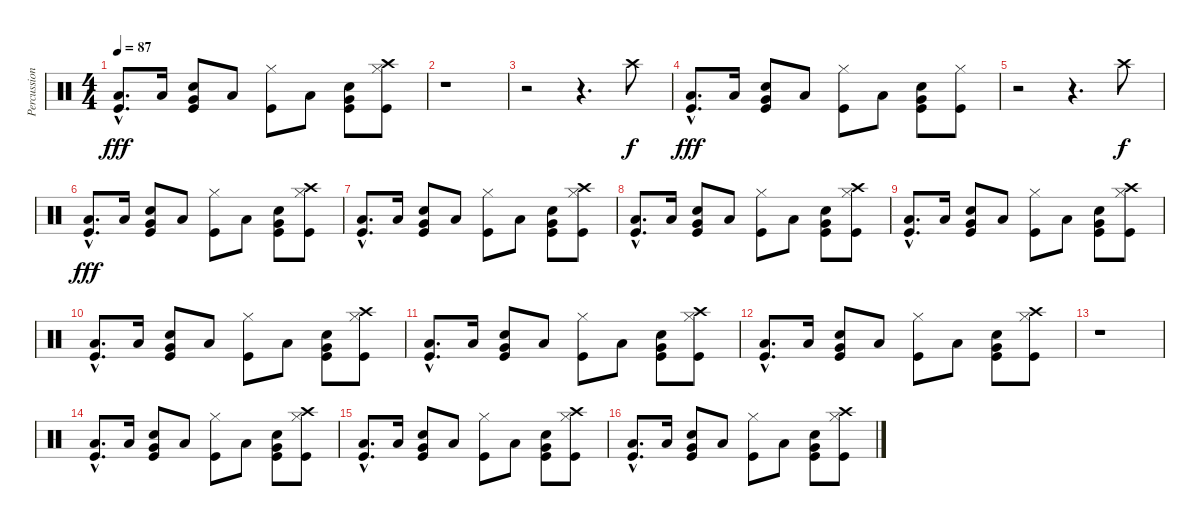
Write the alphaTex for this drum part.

\track ("Percussions" "Percussion") {instrument percussion}
\staff {score}
\articulation defaults
\ts (4 4)
\tempo 87
\clef neutral
\ks c
("Low Floor Tom (hit)"{hac} "Kick (hit)"{hac}).8{d dy fff} "Low Floor Tom (hit)".16 ("Snare (hit) 2" "Very Low Tom (hit)" "Kick (hit)").8 "Low Floor Tom (hit)".8 ("Hi-Hat (closed)" "Kick (hit)").8 "Low Floor Tom (hit)".8 ("Snare (hit) 2" "Very Low Tom (hit)" "Kick (hit)").8 ("Crash high (hit)" "Hi-Hat (closed)" "Kick (hit)").8 |
r.1 |
r.2 r.4{d} "Crash high (hit)".8{dy f} |
("Low Floor Tom (hit)"{hac} "Kick (hit)"{hac}).8{d dy fff} "Low Floor Tom (hit)".16 ("Snare (hit) 2" "Very Low Tom (hit)" "Kick (hit)").8 "Low Floor Tom (hit)".8 ("Hi-Hat (closed)" "Kick (hit)").8 "Low Floor Tom (hit)".8 ("Snare (hit) 2" "Very Low Tom (hit)" "Kick (hit)").8 ("Hi-Hat (closed)" "Kick (hit)").8 |
r.2 r.4{d} "Crash high (hit)".8{dy f} |
("Low Floor Tom (hit)"{hac} "Kick (hit)"{hac}).8{d dy fff} "Low Floor Tom (hit)".16 ("Snare (hit) 2" "Very Low Tom (hit)" "Kick (hit)").8 "Low Floor Tom (hit)".8 ("Hi-Hat (closed)" "Kick (hit)").8 "Low Floor Tom (hit)".8 ("Snare (hit) 2" "Very Low Tom (hit)" "Kick (hit)").8 ("Crash high (hit)" "Hi-Hat (closed)" "Kick (hit)").8 |
("Low Floor Tom (hit)"{hac} "Kick (hit)"{hac}).8{d} "Low Floor Tom (hit)".16 ("Snare (hit) 2" "Very Low Tom (hit)" "Kick (hit)").8 "Low Floor Tom (hit)".8 ("Hi-Hat (closed)" "Kick (hit)").8 "Low Floor Tom (hit)".8 ("Snare (hit) 2" "Very Low Tom (hit)" "Kick (hit)").8 ("Crash high (hit)" "Hi-Hat (closed)" "Kick (hit)").8 |
("Low Floor Tom (hit)"{hac} "Kick (hit)"{hac}).8{d} "Low Floor Tom (hit)".16 ("Snare (hit) 2" "Very Low Tom (hit)" "Kick (hit)").8 "Low Floor Tom (hit)".8 ("Hi-Hat (closed)" "Kick (hit)").8 "Low Floor Tom (hit)".8 ("Snare (hit) 2" "Very Low Tom (hit)" "Kick (hit)").8 ("Crash high (hit)" "Hi-Hat (closed)" "Kick (hit)").8 |
("Low Floor Tom (hit)"{hac} "Kick (hit)"{hac}).8{d} "Low Floor Tom (hit)".16 ("Snare (hit) 2" "Very Low Tom (hit)" "Kick (hit)").8 "Low Floor Tom (hit)".8 ("Hi-Hat (closed)" "Kick (hit)").8 "Low Floor Tom (hit)".8 ("Snare (hit) 2" "Very Low Tom (hit)" "Kick (hit)").8 ("Crash high (hit)" "Hi-Hat (closed)" "Kick (hit)").8 |
("Low Floor Tom (hit)"{hac} "Kick (hit)"{hac}).8{d} "Low Floor Tom (hit)".16 ("Snare (hit) 2" "Very Low Tom (hit)" "Kick (hit)").8 "Low Floor Tom (hit)".8 ("Hi-Hat (closed)" "Kick (hit)").8 "Low Floor Tom (hit)".8 ("Snare (hit) 2" "Very Low Tom (hit)" "Kick (hit)").8 ("Crash high (hit)" "Hi-Hat (closed)" "Kick (hit)").8 |
("Low Floor Tom (hit)"{hac} "Kick (hit)"{hac}).8{d} "Low Floor Tom (hit)".16 ("Snare (hit) 2" "Very Low Tom (hit)" "Kick (hit)").8 "Low Floor Tom (hit)".8 ("Hi-Hat (closed)" "Kick (hit)").8 "Low Floor Tom (hit)".8 ("Snare (hit) 2" "Very Low Tom (hit)" "Kick (hit)").8 ("Crash high (hit)" "Hi-Hat (closed)" "Kick (hit)").8 |
("Low Floor Tom (hit)"{hac} "Kick (hit)"{hac}).8{d} "Low Floor Tom (hit)".16 ("Snare (hit) 2" "Very Low Tom (hit)" "Kick (hit)").8 "Low Floor Tom (hit)".8 ("Hi-Hat (closed)" "Kick (hit)").8 "Low Floor Tom (hit)".8 ("Snare (hit) 2" "Very Low Tom (hit)" "Kick (hit)").8 ("Crash high (hit)" "Hi-Hat (closed)" "Kick (hit)").8 |
r.1 |
("Low Floor Tom (hit)"{hac} "Kick (hit)"{hac}).8{d} "Low Floor Tom (hit)".16 ("Snare (hit) 2" "Very Low Tom (hit)" "Kick (hit)").8 "Low Floor Tom (hit)".8 ("Hi-Hat (closed)" "Kick (hit)").8 "Low Floor Tom (hit)".8 ("Snare (hit) 2" "Very Low Tom (hit)" "Kick (hit)").8 ("Crash high (hit)" "Hi-Hat (closed)" "Kick (hit)").8 |
("Low Floor Tom (hit)"{hac} "Kick (hit)"{hac}).8{d} "Low Floor Tom (hit)".16 ("Snare (hit) 2" "Very Low Tom (hit)" "Kick (hit)").8 "Low Floor Tom (hit)".8 ("Hi-Hat (closed)" "Kick (hit)").8 "Low Floor Tom (hit)".8 ("Snare (hit) 2" "Very Low Tom (hit)" "Kick (hit)").8 ("Crash high (hit)" "Hi-Hat (closed)" "Kick (hit)").8 |
("Low Floor Tom (hit)"{hac} "Kick (hit)"{hac}).8{d} "Low Floor Tom (hit)".16 ("Snare (hit) 2" "Very Low Tom (hit)" "Kick (hit)").8 "Low Floor Tom (hit)".8 ("Hi-Hat (closed)" "Kick (hit)").8 "Low Floor Tom (hit)".8 ("Snare (hit) 2" "Very Low Tom (hit)" "Kick (hit)").8 ("Crash high (hit)" "Hi-Hat (closed)" "Kick (hit)").8
